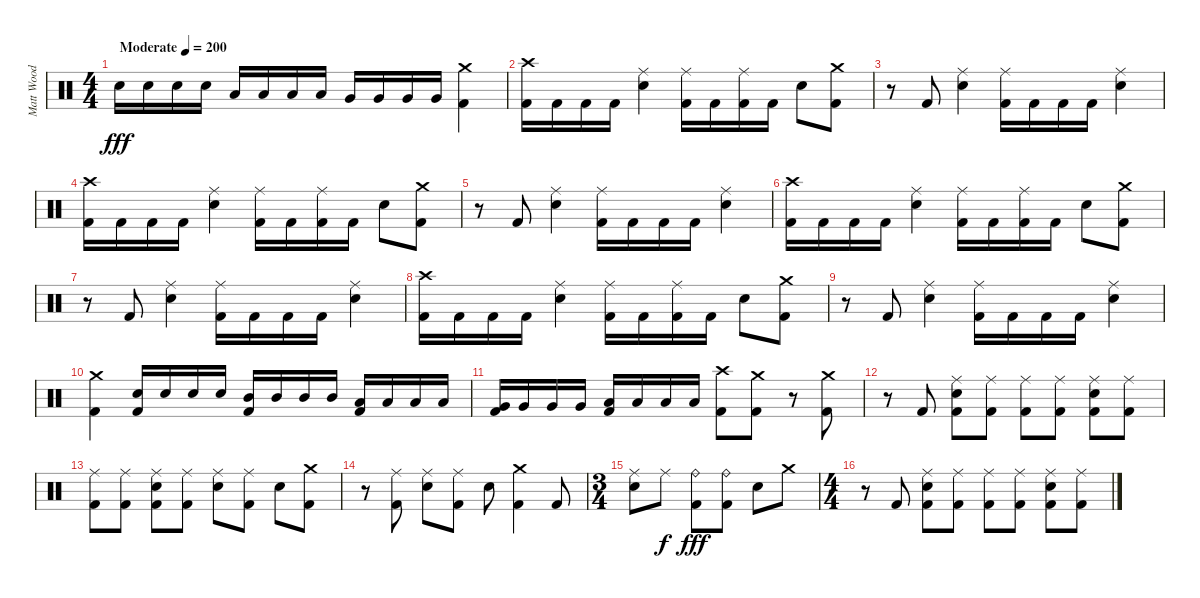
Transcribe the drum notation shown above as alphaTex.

\track ("Matt Wood" "Matt Wood") {instrument percussion}
\staff {score}
\articulation defaults
\ts (4 4)
\tempo (200 "Moderate")
\clef neutral
\ks c "Electric Snare (hit)".16{dy fff} "Electric Snare (hit)".16 "Electric Snare (hit)".16 "Electric Snare (hit)".16 "Low Tom (hit)".16 "Low Tom (hit)".16 "Low Tom (hit)".16 "Low Tom (hit)".16 "Very Low Tom (hit)".16 "Very Low Tom (hit)".16 "Very Low Tom (hit)".16 "Very Low Tom (hit)".16
("Crash medium (hit)" "Kick (hit) 2").4 |
("Crash high (hit)" "Kick (hit) 2").16 "Kick (hit) 2".16 "Kick (hit) 2".16 "Kick (hit) 2".16 ("Ride (middle)" "Electric Snare (hit)").4 ("Ride (middle)" "Kick (hit) 2").16 "Kick (hit) 2".16 ("Ride (middle)" "Kick (hit) 2").16 "Kick (hit) 2".16 "Electric Snare (hit)".8 ("Crash medium (hit)" "Kick (hit) 2").8 |
r.8 "Kick (hit) 2".8 ("Ride (middle)" "Electric Snare (hit)").4 ("Ride (middle)" "Kick (hit) 2").16 "Kick (hit) 2".16 "Kick (hit) 2".16 "Kick (hit) 2".16 ("Ride (middle)" "Electric Snare (hit)").4 |
("Crash high (hit)" "Kick (hit) 2").16 "Kick (hit) 2".16 "Kick (hit) 2".16 "Kick (hit) 2".16 ("Ride (middle)" "Electric Snare (hit)").4 ("Ride (middle)" "Kick (hit) 2").16 "Kick (hit) 2".16 ("Ride (middle)" "Kick (hit) 2").16 "Kick (hit) 2".16 "Electric Snare (hit)".8 ("Crash medium (hit)" "Kick (hit) 2").8 |
r.8 "Kick (hit) 2".8 ("Ride (middle)" "Electric Snare (hit)").4 ("Ride (middle)" "Kick (hit) 2").16 "Kick (hit) 2".16 "Kick (hit) 2".16 "Kick (hit) 2".16 ("Ride (middle)" "Electric Snare (hit)").4 |
("Crash high (hit)" "Kick (hit) 2").16 "Kick (hit) 2".16 "Kick (hit) 2".16 "Kick (hit) 2".16 ("Ride (middle)" "Electric Snare (hit)").4 ("Ride (middle)" "Kick (hit) 2").16 "Kick (hit) 2".16 ("Ride (middle)" "Kick (hit) 2").16 "Kick (hit) 2".16 "Electric Snare (hit)".8 ("Crash medium (hit)" "Kick (hit) 2").8 |
r.8 "Kick (hit) 2".8 ("Ride (middle)" "Electric Snare (hit)").4 ("Ride (middle)" "Kick (hit) 2").16 "Kick (hit) 2".16 "Kick (hit) 2".16 "Kick (hit) 2".16 ("Ride (middle)" "Electric Snare (hit)").4 |
("Crash high (hit)" "Kick (hit) 2").16 "Kick (hit) 2".16 "Kick (hit) 2".16 "Kick (hit) 2".16 ("Ride (middle)" "Electric Snare (hit)").4 ("Ride (middle)" "Kick (hit) 2").16 "Kick (hit) 2".16 ("Ride (middle)" "Kick (hit) 2").16 "Kick (hit) 2".16 "Electric Snare (hit)".8 ("Crash medium (hit)" "Kick (hit) 2").8 |
r.8 "Kick (hit) 2".8 ("Ride (middle)" "Electric Snare (hit)").4 ("Ride (middle)" "Kick (hit) 2").16 "Kick (hit) 2".16 "Kick (hit) 2".16 "Kick (hit) 2".16 ("Ride (middle)" "Electric Snare (hit)").4 |
("Crash medium (hit)" "Kick (hit) 2").4 ("Electric Snare (hit)" "Kick (hit) 2").16 "Electric Snare (hit)".16 "Electric Snare (hit)".16 "Electric Snare (hit)".16 ("Mid Tom (hit)" "Kick (hit) 2").16 "Mid Tom (hit)".16 "Mid Tom (hit)".16 "Mid Tom (hit)".16 ("Low Tom (hit)" "Kick (hit) 2").16 "Low Tom (hit)".16 "Low Tom (hit)".16 "Low Tom (hit)".16 |
("Very Low Tom (hit)" "Kick (hit) 2").16 "Very Low Tom (hit)".16 "Very Low Tom (hit)".16 "Very Low Tom (hit)".16 ("Low Floor Tom (hit)" "Kick (hit) 2").16 "Low Floor Tom (hit)".16 "Low Floor Tom (hit)".16 "Low Floor Tom (hit)".16 ("Crash high (hit)" "Kick (hit) 2").8 ("Crash medium (hit)" "Kick (hit) 2").8 r.8 ("Crash medium (hit)" "Kick (hit) 2").8 |
r.8 "Kick (hit) 2".8 ("Ride (middle)" "Electric Snare (hit)" "Kick (hit) 2").8 ("Ride (middle)" "Kick (hit) 2").8 ("Ride (middle)" "Kick (hit) 2").8 ("Ride (middle)" "Kick (hit) 2").8 ("Ride (middle)" "Electric Snare (hit)" "Kick (hit) 2").8 ("Ride (middle)" "Kick (hit) 2").8 |
("Ride (middle)" "Kick (hit) 2").8 ("Ride (middle)" "Kick (hit) 2").8 ("Ride (middle)" "Electric Snare (hit)" "Kick (hit) 2").8 ("Ride (middle)" "Kick (hit) 2").8 ("Ride (middle)" "Electric Snare (hit)").8 ("Ride (middle)" "Kick (hit) 2").8 "Electric Snare (hit)".8 ("Crash medium (hit)" "Kick (hit) 2").8 |
r.8 ("Ride (middle)" "Kick (hit) 2").8 ("Ride (middle)" "Electric Snare (hit)").8 ("Ride (middle)" "Kick (hit) 2").8 "Electric Snare (hit)".8 ("Crash medium (hit)" "Kick (hit) 2").4 "Kick (hit) 2".8 |
\ts (3 4)
("Ride (middle)" "Electric Snare (hit)").8 "Ride (middle)".8{dy f} ("Ride (bell)" "Kick (hit) 2").8{dy fff} ("Ride (bell)" "Kick (hit) 2").8 "Electric Snare (hit)".8 "Crash medium (hit)".8 |
\ts (4 4)
r.8 "Kick (hit) 2".8 ("Ride (middle)" "Electric Snare (hit)" "Kick (hit) 2").8 ("Ride (middle)" "Kick (hit) 2").8 ("Ride (middle)" "Kick (hit) 2").8 ("Ride (middle)" "Kick (hit) 2").8 ("Ride (middle)" "Electric Snare (hit)" "Kick (hit) 2").8 ("Ride (middle)" "Kick (hit) 2").8
